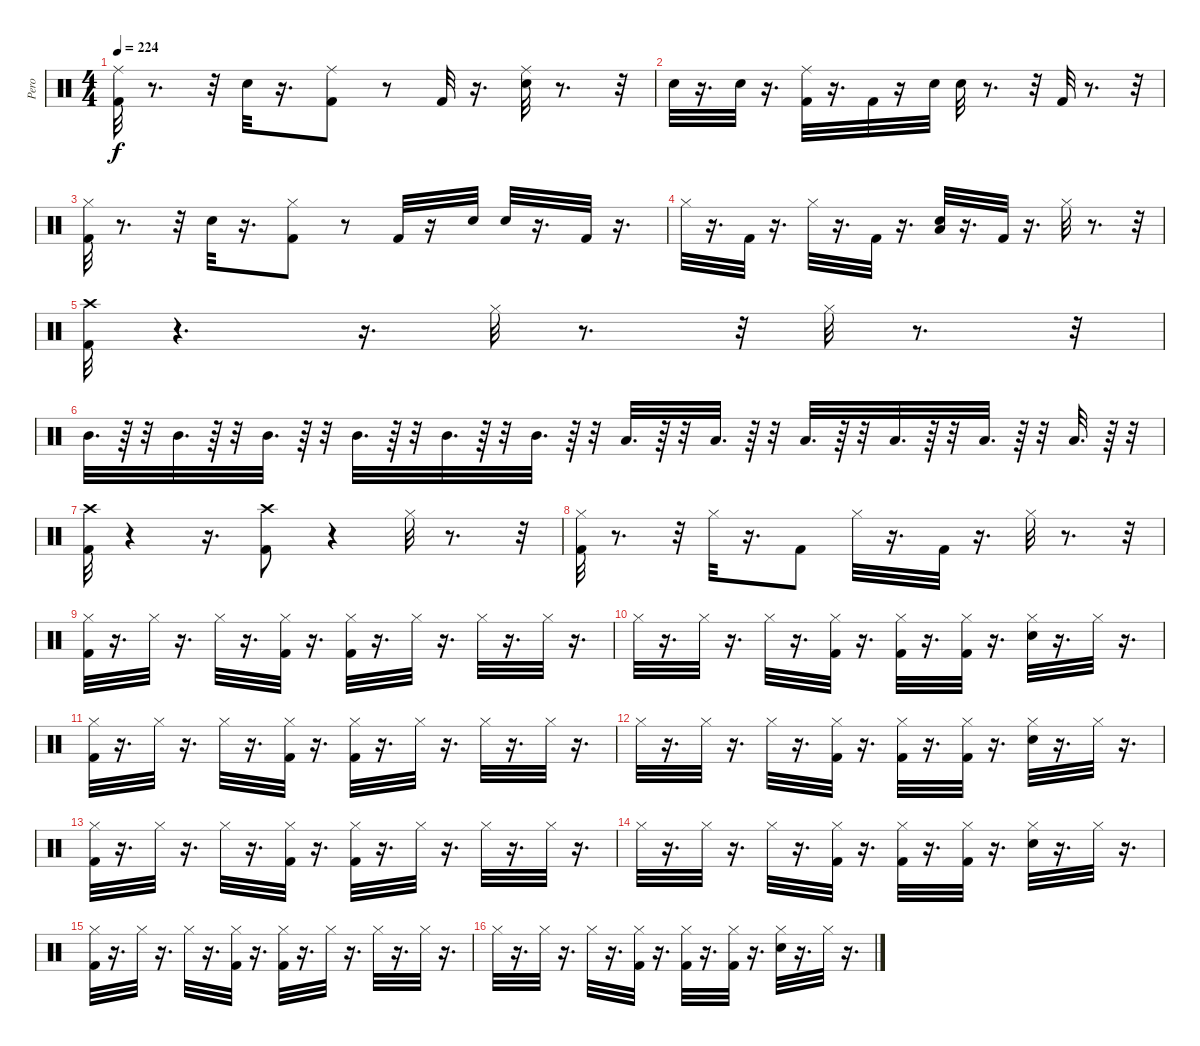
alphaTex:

\track ("Pero" "Pero") {instrument percussion}
\staff {score}
\articulation defaults
\ts (4 4)
\tempo 224
\clef neutral
\ks c
("Ride (middle)" "Kick (hit) 2").32{dy f} r.8{d} r.32 "Snare (hit) 2".32 r.16{d} ("Ride (middle)" "Kick (hit) 2").8 r.8 "Kick (hit) 2".32 r.16{d} ("Snare (hit) 2" "Ride (middle)").32 r.8{d} r.32 |
"Snare (hit) 2".32 r.16{d} "Snare (hit) 2".32 r.16{d} ("Kick (hit) 2" "Ride (middle)").32 r.16{d} "Kick (hit) 2".32 r.16 "Snare (hit) 2".32 "Snare (hit) 2".32 r.8{d} r.32 "Kick (hit) 2".32 r.8{d} r.32 |
("Hi-Hat (closed)" "Kick (hit) 2").32 r.8{d} r.32 "Snare (hit) 2".32 r.16{d} ("Hi-Hat (closed)" "Kick (hit) 2").8 r.8 "Kick (hit) 2".32 r.16 "Snare (hit) 2".32 "Snare (hit) 2".32 r.16{d} "Kick (hit) 2".32 r.16{d} |
"Hi-Hat (closed)".32 r.16{d} "Kick (hit) 2".32 r.16{d} "Hi-Hat (closed)".32 r.16{d} "Kick (hit) 2".32 r.16{d} ("Snare (hit) 2" "Low Tom (hit)").32 r.16{d} "Kick (hit) 2".32 r.16{d} "Hi-Hat (closed)".32 r.8{d} r.32 |
("Crash high (hit)" "Kick (hit) 2").32 r.4{d} r.16{d} "Hi-Hat (closed)".32 r.8{d} r.32 "Hi-Hat (closed)".32 r.8{d} r.32 |
"Mid Tom (hit)".32{d} r.64 r.32 "Mid Tom (hit)".32{d} r.64 r.32 "Mid Tom (hit)".32{d} r.64 r.32 "Mid Tom (hit)".32{d} r.64 r.32 "Mid Tom (hit)".32{d} r.64 r.32 "Mid Tom (hit)".32{d} r.64 r.32 "Low Tom (hit)".32{d} r.64 r.32 "Low Tom (hit)".32{d} r.64 r.32 "Low Tom (hit)".32{d} r.64 r.32 "Low Tom (hit)".32{d} r.64 r.32 "Low Tom (hit)".32{d} r.64 r.32 "Low Tom (hit)".32{d} r.64 r.32 |
("Crash high (hit)" "Kick (hit) 2").32 r.4 r.16{d} ("Crash high (hit)" "Kick (hit) 2").8 r.4 "Hi-Hat (closed)".32 r.8{d} r.32 |
("Hi-Hat (closed)" "Kick (hit) 2").32 r.8{d} r.32 "Hi-Hat (closed)".32 r.16{d} "Kick (hit) 2".8 "Hi-Hat (closed)".32 r.16{d} "Kick (hit) 2".32 r.16{d} "Hi-Hat (closed)".32 r.8{d} r.32 |
("Hi-Hat (closed)" "Kick (hit) 2").32 r.16{d} "Hi-Hat (closed)".32 r.16{d} "Hi-Hat (closed)".32 r.16{d} ("Hi-Hat (closed)" "Kick (hit) 2").32 r.16{d} ("Hi-Hat (closed)" "Kick (hit) 2").32 r.16{d} "Hi-Hat (closed)".32 r.16{d} "Hi-Hat (closed)".32 r.16{d} "Hi-Hat (closed)".32 r.16{d} |
"Hi-Hat (closed)".32 r.16{d} "Hi-Hat (closed)".32 r.16{d} "Hi-Hat (closed)".32 r.16{d} ("Hi-Hat (closed)" "Kick (hit) 2").32 r.16{d} ("Hi-Hat (closed)" "Kick (hit) 2").32 r.16{d} ("Hi-Hat (closed)" "Kick (hit) 2").32 r.16{d} ("Hi-Hat (closed)" "Snare (hit) 2").32 r.16{d} "Hi-Hat (closed)".32 r.16{d} |
("Hi-Hat (closed)" "Kick (hit) 2").32 r.16{d} "Hi-Hat (closed)".32 r.16{d} "Hi-Hat (closed)".32 r.16{d} ("Hi-Hat (closed)" "Kick (hit) 2").32 r.16{d} ("Hi-Hat (closed)" "Kick (hit) 2").32 r.16{d} "Hi-Hat (closed)".32 r.16{d} "Hi-Hat (closed)".32 r.16{d} "Hi-Hat (closed)".32 r.16{d} |
"Hi-Hat (closed)".32 r.16{d} "Hi-Hat (closed)".32 r.16{d} "Hi-Hat (closed)".32 r.16{d} ("Hi-Hat (closed)" "Kick (hit) 2").32 r.16{d} ("Hi-Hat (closed)" "Kick (hit) 2").32 r.16{d} ("Hi-Hat (closed)" "Kick (hit) 2").32 r.16{d} ("Hi-Hat (closed)" "Snare (hit) 2").32 r.16{d} "Hi-Hat (closed)".32 r.16{d} |
("Hi-Hat (closed)" "Kick (hit) 2").32 r.16{d} "Hi-Hat (closed)".32 r.16{d} "Hi-Hat (closed)".32 r.16{d} ("Hi-Hat (closed)" "Kick (hit) 2").32 r.16{d} ("Hi-Hat (closed)" "Kick (hit) 2").32 r.16{d} "Hi-Hat (closed)".32 r.16{d} "Hi-Hat (closed)".32 r.16{d} "Hi-Hat (closed)".32 r.16{d} |
"Hi-Hat (closed)".32 r.16{d} "Hi-Hat (closed)".32 r.16{d} "Hi-Hat (closed)".32 r.16{d} ("Hi-Hat (closed)" "Kick (hit) 2").32 r.16{d} ("Hi-Hat (closed)" "Kick (hit) 2").32 r.16{d} ("Hi-Hat (closed)" "Kick (hit) 2").32 r.16{d} ("Hi-Hat (closed)" "Snare (hit) 2").32 r.16{d} "Hi-Hat (closed)".32 r.16{d} |
("Hi-Hat (closed)" "Kick (hit) 2").32 r.16{d} "Hi-Hat (closed)".32 r.16{d} "Hi-Hat (closed)".32 r.16{d} ("Hi-Hat (closed)" "Kick (hit) 2").32 r.16{d} ("Hi-Hat (closed)" "Kick (hit) 2").32 r.16{d} "Hi-Hat (closed)".32 r.16{d} "Hi-Hat (closed)".32 r.16{d} "Hi-Hat (closed)".32 r.16{d} |
"Hi-Hat (closed)".32 r.16{d} "Hi-Hat (closed)".32 r.16{d} "Hi-Hat (closed)".32 r.16{d} ("Hi-Hat (closed)" "Kick (hit) 2").32 r.16{d} ("Hi-Hat (closed)" "Kick (hit) 2").32 r.16{d} ("Hi-Hat (closed)" "Kick (hit) 2").32 r.16{d} ("Hi-Hat (closed)" "Snare (hit) 2").32 r.16{d} "Hi-Hat (closed)".32 r.16{d}
